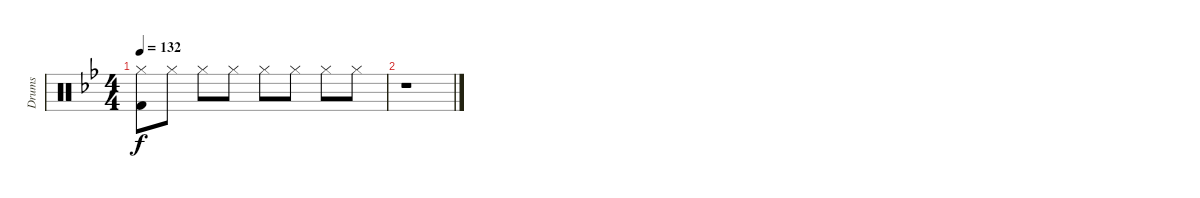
\track ("Drums" "Drums") {instrument percussion}
\staff {score}
\articulation defaults
\ts (4 4)
\tempo 132
\clef neutral
\ks bb
("Hi-Hat (closed)" "Kick (hit) 2").8{dy f} "Hi-Hat (closed)".8 "Hi-Hat (closed)".8 "Hi-Hat (closed)".8 "Hi-Hat (closed)".8 "Hi-Hat (closed)".8 "Hi-Hat (closed)".8 "Hi-Hat (closed)".8 |
r.1
